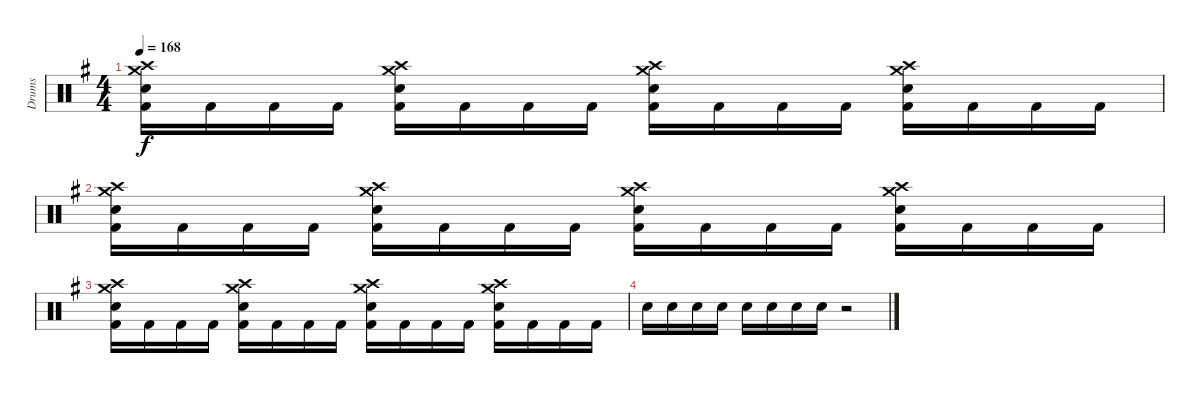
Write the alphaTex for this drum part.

\track ("Drums" "Drums") {instrument percussion}
\staff {score}
\articulation defaults
\ts (4 4)
\tempo 168
\clef neutral
\ks g
("Crash medium (hit)" "Crash high (hit)" "Snare (hit) 2" "Kick (hit) 2").16{dy f} "Kick (hit) 2".16 "Kick (hit) 2".16 "Kick (hit) 2".16 ("Crash medium (hit)" "Crash high (hit)" "Snare (hit) 2" "Kick (hit) 2").16 "Kick (hit) 2".16 "Kick (hit) 2".16 "Kick (hit) 2".16 ("Crash medium (hit)" "Crash high (hit)" "Snare (hit) 2" "Kick (hit) 2").16 "Kick (hit) 2".16 "Kick (hit) 2".16 "Kick (hit) 2".16 ("Crash medium (hit)" "Crash high (hit)" "Snare (hit) 2" "Kick (hit) 2").16 "Kick (hit) 2".16 "Kick (hit) 2".16 "Kick (hit) 2".16 |
("Crash medium (hit)" "Crash high (hit)" "Snare (hit) 2" "Kick (hit) 2").16 "Kick (hit) 2".16 "Kick (hit) 2".16 "Kick (hit) 2".16 ("Crash medium (hit)" "Crash high (hit)" "Snare (hit) 2" "Kick (hit) 2").16 "Kick (hit) 2".16 "Kick (hit) 2".16 "Kick (hit) 2".16 ("Crash medium (hit)" "Crash high (hit)" "Snare (hit) 2" "Kick (hit) 2").16 "Kick (hit) 2".16 "Kick (hit) 2".16 "Kick (hit) 2".16 ("Crash medium (hit)" "Crash high (hit)" "Snare (hit) 2" "Kick (hit) 2").16 "Kick (hit) 2".16 "Kick (hit) 2".16 "Kick (hit) 2".16 |
("Crash medium (hit)" "Crash high (hit)" "Snare (hit) 2" "Kick (hit) 2").16 "Kick (hit) 2".16 "Kick (hit) 2".16 "Kick (hit) 2".16 ("Crash medium (hit)" "Crash high (hit)" "Snare (hit) 2" "Kick (hit) 2").16 "Kick (hit) 2".16 "Kick (hit) 2".16 "Kick (hit) 2".16 ("Crash medium (hit)" "Crash high (hit)" "Snare (hit) 2" "Kick (hit) 2").16 "Kick (hit) 2".16 "Kick (hit) 2".16 "Kick (hit) 2".16 ("Crash medium (hit)" "Crash high (hit)" "Snare (hit) 2" "Kick (hit) 2").16 "Kick (hit) 2".16 "Kick (hit) 2".16 "Kick (hit) 2".16 |
"Snare (hit) 2".16 "Snare (hit) 2".16 "Snare (hit) 2".16 "Snare (hit) 2".16 "Snare (hit) 2".16 "Snare (hit) 2".16 "Snare (hit) 2".16 "Snare (hit) 2".16 r.2
